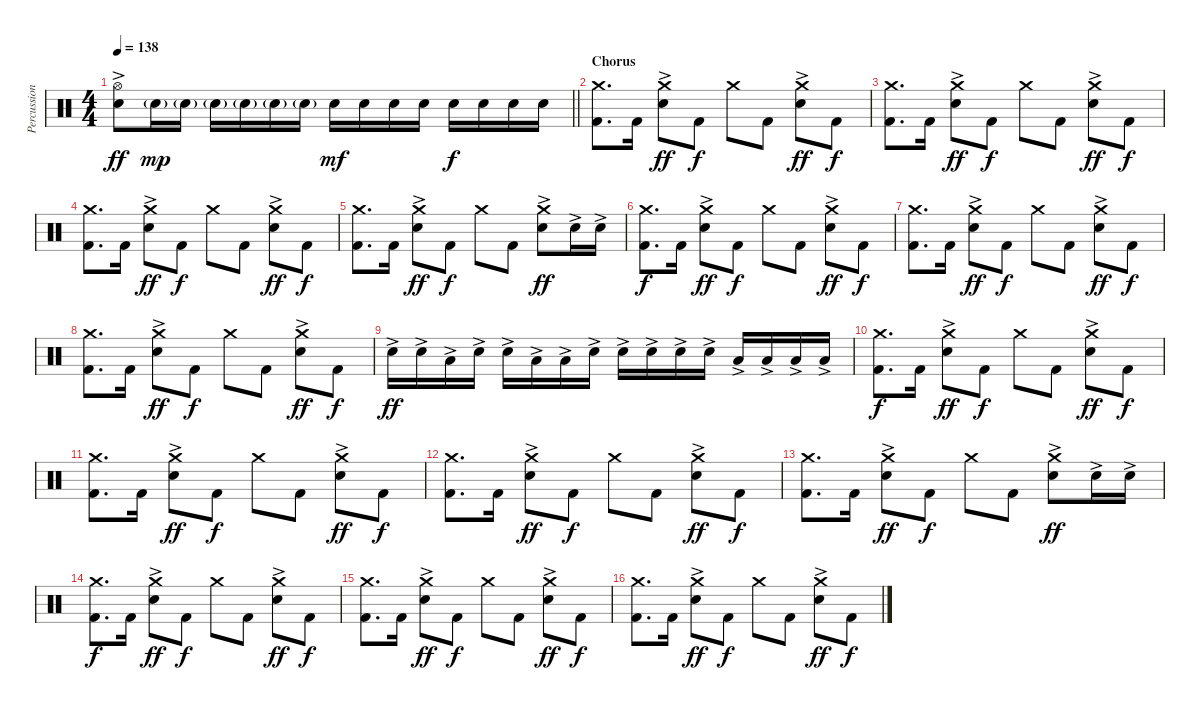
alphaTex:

\track ("Percussion" "Percussion") {instrument percussion}
\staff {score}
\articulation defaults
\ts (4 4)
\tempo 138
\clef neutral
\barLineRight lightlight
\ks c
("Hi-Hat (open)" "Electric Snare (hit)"{ac}).8{dy ff} "Electric Snare (hit)"{g}.16{dy mp} "Electric Snare (hit)"{g}.16 "Electric Snare (hit)"{g}.16 "Electric Snare (hit)"{g}.16 "Electric Snare (hit)"{g}.16 "Electric Snare (hit)"{g}.16 "Electric Snare (hit)".16{dy mf} "Electric Snare (hit)".16 "Electric Snare (hit)".16 "Electric Snare (hit)".16 "Electric Snare (hit)".16{dy f} "Electric Snare (hit)".16 "Electric Snare (hit)".16 "Electric Snare (hit)".16 |
\section ("" "Chorus")
("Crash medium (hit)" "Kick (hit) 2").8{d} "Kick (hit) 2".16 ("Crash medium (hit)" "Electric Snare (hit)"{ac}).8{dy ff} "Kick (hit) 2".8{dy f} "Crash medium (hit)".8 "Kick (hit) 2".8 ("Crash medium (hit)" "Electric Snare (hit)"{ac}).8{dy ff} "Kick (hit) 2".8{dy f} |
("Crash medium (hit)" "Kick (hit) 2").8{d} "Kick (hit) 2".16 ("Crash medium (hit)" "Electric Snare (hit)"{ac}).8{dy ff} "Kick (hit) 2".8{dy f} "Crash medium (hit)".8 "Kick (hit) 2".8 ("Crash medium (hit)" "Electric Snare (hit)"{ac}).8{dy ff} "Kick (hit) 2".8{dy f} |
("Crash medium (hit)" "Kick (hit) 2").8{d} "Kick (hit) 2".16 ("Crash medium (hit)" "Electric Snare (hit)"{ac}).8{dy ff} "Kick (hit) 2".8{dy f} "Crash medium (hit)".8 "Kick (hit) 2".8 ("Crash medium (hit)" "Electric Snare (hit)"{ac}).8{dy ff} "Kick (hit) 2".8{dy f} |
("Crash medium (hit)" "Kick (hit) 2").8{d} "Kick (hit) 2".16 ("Crash medium (hit)" "Electric Snare (hit)"{ac}).8{dy ff} "Kick (hit) 2".8{dy f} "Crash medium (hit)".8 "Kick (hit) 2".8 ("Crash medium (hit)" "Electric Snare (hit)"{ac}).8{dy ff} "Electric Snare (hit)"{ac}.16 "Electric Snare (hit)"{ac}.16 |
("Crash medium (hit)" "Kick (hit) 2").8{d dy f} "Kick (hit) 2".16 ("Crash medium (hit)" "Electric Snare (hit)"{ac}).8{dy ff} "Kick (hit) 2".8{dy f} "Crash medium (hit)".8 "Kick (hit) 2".8 ("Crash medium (hit)" "Electric Snare (hit)"{ac}).8{dy ff} "Kick (hit) 2".8{dy f} |
("Crash medium (hit)" "Kick (hit) 2").8{d} "Kick (hit) 2".16 ("Crash medium (hit)" "Electric Snare (hit)"{ac}).8{dy ff} "Kick (hit) 2".8{dy f} "Crash medium (hit)".8 "Kick (hit) 2".8 ("Crash medium (hit)" "Electric Snare (hit)"{ac}).8{dy ff} "Kick (hit) 2".8{dy f} |
("Crash medium (hit)" "Kick (hit) 2").8{d} "Kick (hit) 2".16 ("Crash medium (hit)" "Electric Snare (hit)"{ac}).8{dy ff} "Kick (hit) 2".8{dy f} "Crash medium (hit)".8 "Kick (hit) 2".8 ("Crash medium (hit)" "Electric Snare (hit)"{ac}).8{dy ff} "Kick (hit) 2".8{dy f} |
"Electric Snare (hit)"{ac}.16{dy ff} "Electric Snare (hit)"{ac}.16 "Low Tom (hit)"{ac}.16 "Electric Snare (hit)"{ac}.16 "Electric Snare (hit)"{ac}.16 "Low Tom (hit)"{ac}.16 "Low Tom (hit)"{ac}.16 "Electric Snare (hit)"{ac}.16 "Electric Snare (hit)"{ac}.16 "Electric Snare (hit)"{ac}.16 "Electric Snare (hit)"{ac}.16 "Electric Snare (hit)"{ac}.16 "Low Tom (hit)"{ac}.16 "Low Tom (hit)"{ac}.16 "Low Tom (hit)"{ac}.16 "Low Tom (hit)"{ac}.16 |
("Crash medium (hit)" "Kick (hit) 2").8{d dy f} "Kick (hit) 2".16 ("Crash medium (hit)" "Electric Snare (hit)"{ac}).8{dy ff} "Kick (hit) 2".8{dy f} "Crash medium (hit)".8 "Kick (hit) 2".8 ("Crash medium (hit)" "Electric Snare (hit)"{ac}).8{dy ff} "Kick (hit) 2".8{dy f} |
("Crash medium (hit)" "Kick (hit) 2").8{d} "Kick (hit) 2".16 ("Crash medium (hit)" "Electric Snare (hit)"{ac}).8{dy ff} "Kick (hit) 2".8{dy f} "Crash medium (hit)".8 "Kick (hit) 2".8 ("Crash medium (hit)" "Electric Snare (hit)"{ac}).8{dy ff} "Kick (hit) 2".8{dy f} |
("Crash medium (hit)" "Kick (hit) 2").8{d} "Kick (hit) 2".16 ("Crash medium (hit)" "Electric Snare (hit)"{ac}).8{dy ff} "Kick (hit) 2".8{dy f} "Crash medium (hit)".8 "Kick (hit) 2".8 ("Crash medium (hit)" "Electric Snare (hit)"{ac}).8{dy ff} "Kick (hit) 2".8{dy f} |
("Crash medium (hit)" "Kick (hit) 2").8{d} "Kick (hit) 2".16 ("Crash medium (hit)" "Electric Snare (hit)"{ac}).8{dy ff} "Kick (hit) 2".8{dy f} "Crash medium (hit)".8 "Kick (hit) 2".8 ("Crash medium (hit)" "Electric Snare (hit)"{ac}).8{dy ff} "Electric Snare (hit)"{ac}.16 "Electric Snare (hit)"{ac}.16 |
("Crash medium (hit)" "Kick (hit) 2").8{d dy f} "Kick (hit) 2".16 ("Crash medium (hit)" "Electric Snare (hit)"{ac}).8{dy ff} "Kick (hit) 2".8{dy f} "Crash medium (hit)".8 "Kick (hit) 2".8 ("Crash medium (hit)" "Electric Snare (hit)"{ac}).8{dy ff} "Kick (hit) 2".8{dy f} |
("Crash medium (hit)" "Kick (hit) 2").8{d} "Kick (hit) 2".16 ("Crash medium (hit)" "Electric Snare (hit)"{ac}).8{dy ff} "Kick (hit) 2".8{dy f} "Crash medium (hit)".8 "Kick (hit) 2".8 ("Crash medium (hit)" "Electric Snare (hit)"{ac}).8{dy ff} "Kick (hit) 2".8{dy f} |
("Crash medium (hit)" "Kick (hit) 2").8{d} "Kick (hit) 2".16 ("Crash medium (hit)" "Electric Snare (hit)"{ac}).8{dy ff} "Kick (hit) 2".8{dy f} "Crash medium (hit)".8 "Kick (hit) 2".8 ("Crash medium (hit)" "Electric Snare (hit)"{ac}).8{dy ff} "Kick (hit) 2".8{dy f}
